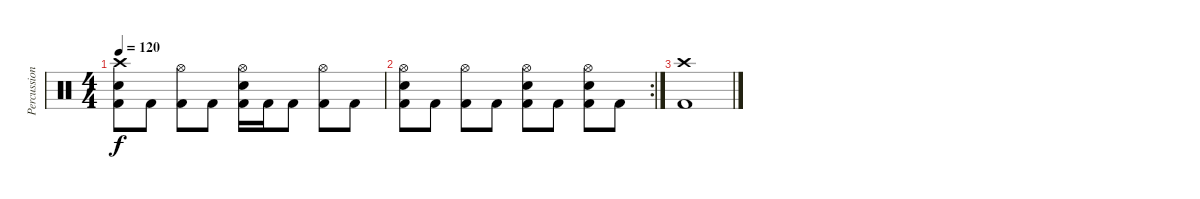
\track ("Percussion" "Percussion") {instrument percussion}
\staff {score}
\articulation defaults
\ts (4 4)
\tempo 120
\clef neutral
\ks c
("Crash high (hit)" "Snare (hit) 2" "Kick (hit) 2").8{dy f} "Kick (hit) 2".8 ("Hi-Hat (open)" "Kick (hit) 2").8 "Kick (hit) 2".8 ("Hi-Hat (open)" "Snare (hit) 2" "Kick (hit) 2").16 "Kick (hit) 2".16 "Kick (hit) 2".8 ("Hi-Hat (open)" "Kick (hit) 2").8 "Kick (hit) 2".8 |
\rc 2
("Hi-Hat (open)" "Snare (hit) 2" "Kick (hit) 2").8 "Kick (hit) 2".8 ("Hi-Hat (open)" "Kick (hit) 2").8 "Kick (hit) 2".8 ("Hi-Hat (open)" "Snare (hit) 2" "Kick (hit) 2").8 "Kick (hit) 2".8 ("Hi-Hat (open)" "Snare (hit) 2" "Kick (hit) 2").8 "Kick (hit) 2".8 |
("Crash high (hit)" "Kick (hit) 2").1
